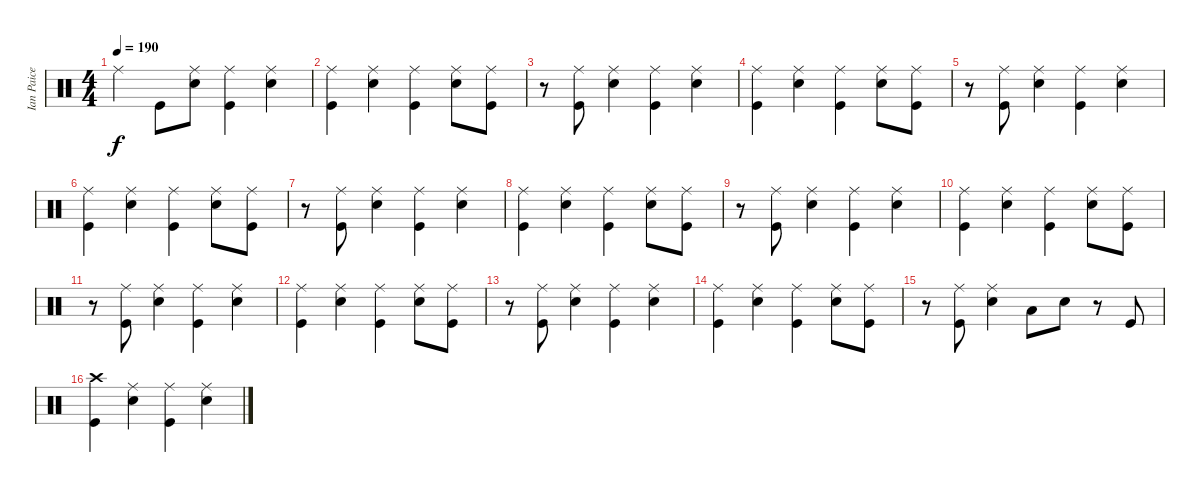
\track ("Ian Paice" "Ian Paice") {instrument percussion}
\staff {score}
\articulation defaults
\ts (4 4)
\tempo 190
\clef neutral
\ks c "Ride (middle)".4{dy f} "Kick (hit)".8
("Snare (hit) 2" "Ride (middle)").8 ("Kick (hit)" "Ride (middle)").4 ("Snare (hit) 2" "Ride (middle)").4 |
("Kick (hit)" "Ride (middle)").4 ("Ride (middle)" "Snare (hit) 2").4 ("Ride (middle)" "Kick (hit)").4 ("Ride (middle)" "Snare (hit) 2").8 ("Ride (middle)" "Kick (hit)").8 |
r.8 ("Ride (middle)" "Kick (hit)").8 ("Snare (hit) 2" "Ride (middle)").4 ("Kick (hit)" "Ride (middle)").4 ("Snare (hit) 2" "Ride (middle)").4 |
("Kick (hit)" "Ride (middle)").4 ("Ride (middle)" "Snare (hit) 2").4 ("Ride (middle)" "Kick (hit)").4 ("Ride (middle)" "Snare (hit) 2").8 ("Ride (middle)" "Kick (hit)").8 |
r.8 ("Ride (middle)" "Kick (hit)").8 ("Snare (hit) 2" "Ride (middle)").4 ("Kick (hit)" "Ride (middle)").4 ("Snare (hit) 2" "Ride (middle)").4 |
("Kick (hit)" "Ride (middle)").4 ("Ride (middle)" "Snare (hit) 2").4 ("Ride (middle)" "Kick (hit)").4 ("Ride (middle)" "Snare (hit) 2").8 ("Ride (middle)" "Kick (hit)").8 |
r.8 ("Ride (middle)" "Kick (hit)").8 ("Snare (hit) 2" "Ride (middle)").4 ("Kick (hit)" "Ride (middle)").4 ("Snare (hit) 2" "Ride (middle)").4 |
("Kick (hit)" "Ride (middle)").4 ("Ride (middle)" "Snare (hit) 2").4 ("Ride (middle)" "Kick (hit)").4 ("Ride (middle)" "Snare (hit) 2").8 ("Ride (middle)" "Kick (hit)").8 |
r.8 ("Ride (middle)" "Kick (hit)").8 ("Snare (hit) 2" "Ride (middle)").4 ("Kick (hit)" "Ride (middle)").4 ("Snare (hit) 2" "Ride (middle)").4 |
("Kick (hit)" "Ride (middle)").4 ("Ride (middle)" "Snare (hit) 2").4 ("Ride (middle)" "Kick (hit)").4 ("Ride (middle)" "Snare (hit) 2").8 ("Ride (middle)" "Kick (hit)").8 |
r.8 ("Ride (middle)" "Kick (hit)").8 ("Snare (hit) 2" "Ride (middle)").4 ("Kick (hit)" "Ride (middle)").4 ("Snare (hit) 2" "Ride (middle)").4 |
("Kick (hit)" "Ride (middle)").4 ("Ride (middle)" "Snare (hit) 2").4 ("Ride (middle)" "Kick (hit)").4 ("Ride (middle)" "Snare (hit) 2").8 ("Ride (middle)" "Kick (hit)").8 |
r.8 ("Ride (middle)" "Kick (hit)").8 ("Snare (hit) 2" "Ride (middle)").4 ("Kick (hit)" "Ride (middle)").4 ("Snare (hit) 2" "Ride (middle)").4 |
("Kick (hit)" "Ride (middle)").4 ("Ride (middle)" "Snare (hit) 2").4 ("Ride (middle)" "Kick (hit)").4 ("Ride (middle)" "Snare (hit) 2").8 ("Ride (middle)" "Kick (hit)").8 |
r.8 ("Ride (middle)" "Kick (hit)").8 ("Snare (hit) 2" "Ride (middle)").4 "Low Tom (hit)".8 "Snare (hit) 2".8 r.8 "Kick (hit)".8 |
("Kick (hit)" "Crash high (hit)").4 ("Ride (middle)" "Snare (hit) 2").4 ("Ride (middle)" "Kick (hit)").4 ("Ride (middle)" "Snare (hit) 2").4
